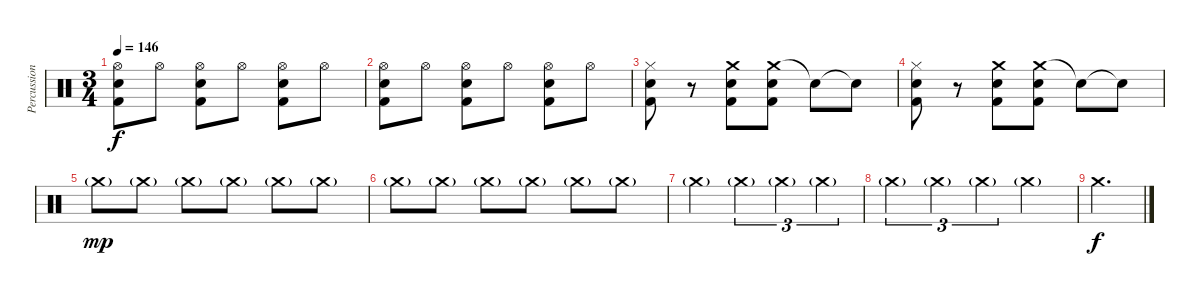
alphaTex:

\track ("Percussion" "Percussion") {instrument percussion}
\staff {score}
\articulation defaults
\ts (3 4)
\tempo 146
\clef neutral
\ks c
("Hi-Hat (open)" "Snare (hit) 2" "Kick (hit) 2").8{dy f} "Hi-Hat (open)".8 ("Hi-Hat (open)" "Snare (hit) 2" "Kick (hit) 2").8 "Hi-Hat (open)".8 ("Hi-Hat (open)" "Snare (hit) 2" "Kick (hit) 2").8 "Hi-Hat (open)".8 |
("Hi-Hat (open)" "Snare (hit) 2" "Kick (hit) 2").8 "Hi-Hat (open)".8 ("Hi-Hat (open)" "Snare (hit) 2" "Kick (hit) 2").8 "Hi-Hat (open)".8 ("Hi-Hat (open)" "Snare (hit) 2" "Kick (hit) 2").8 "Hi-Hat (open)".8 |
("Hi-Hat (closed)" "Snare (hit) 2" "Kick (hit) 2").8 r.8 ("Crash medium (hit)" "Snare (hit) 2" "Kick (hit) 2").8 ("Crash medium (hit)" "Snare (hit) 2" "Kick (hit) 2").8 "Snare (hit)"{t}.8 "Snare (hit)"{t}.8 |
("Hi-Hat (closed)" "Snare (hit) 2" "Kick (hit) 2").8 r.8 ("Crash medium (hit)" "Snare (hit) 2" "Kick (hit) 2").8 ("Crash medium (hit)" "Snare (hit) 2" "Kick (hit) 2").8 "Snare (hit)"{t}.8 "Snare (hit)"{t}.8 |
"Crash medium (hit)"{g}.8{dy mp} "Crash medium (hit)"{g}.8 "Crash medium (hit)"{g}.8 "Crash medium (hit)"{g}.8 "Crash medium (hit)"{g}.8 "Crash medium (hit)"{g}.8 |
"Crash medium (hit)"{g}.8 "Crash medium (hit)"{g}.8 "Crash medium (hit)"{g}.8 "Crash medium (hit)"{g}.8 "Crash medium (hit)"{g}.8 "Crash medium (hit)"{g}.8 |
"Crash medium (hit)"{g}.4 "Crash medium (hit)"{g}.4{tu (3 2)} "Crash medium (hit)"{g}.4{tu (3 2)} "Crash medium (hit)"{g}.4{tu (3 2)} |
"Crash medium (hit)"{g}.4{tu (3 2)} "Crash medium (hit)"{g}.4{tu (3 2)} "Crash medium (hit)"{g}.4{tu (3 2)} "Crash medium (hit)"{g}.4 |
"Crash medium (hit)".2{d dy f}
